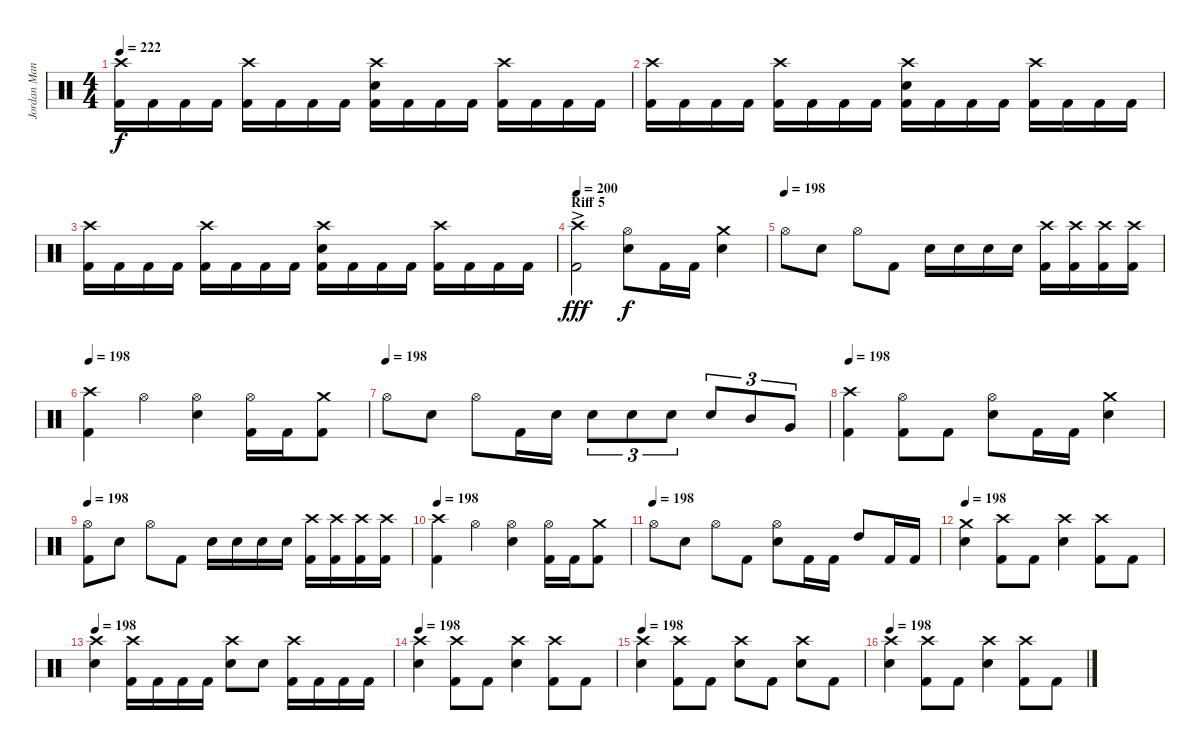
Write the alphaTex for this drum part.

\track ("Jordan Mancino (Drums)" "Jordan Man") {instrument percussion}
\staff {score}
\articulation defaults
\ts (4 4)
\tempo 222
\clef neutral
\ks c
("Crash high (hit)" "Kick (hit) 2").16{dy f} "Kick (hit) 2".16 "Kick (hit) 2".16 "Kick (hit) 2".16 ("Crash high (hit)" "Kick (hit) 2").16 "Kick (hit) 2".16 "Kick (hit) 2".16 "Kick (hit) 2".16 ("Snare (hit) 2" "Crash high (hit)" "Kick (hit) 2").16 "Kick (hit) 2".16 "Kick (hit) 2".16 "Kick (hit) 2".16 ("Crash high (hit)" "Kick (hit) 2").16 "Kick (hit) 2".16 "Kick (hit) 2".16 "Kick (hit) 2".16 |
("Crash high (hit)" "Kick (hit) 2").16 "Kick (hit) 2".16 "Kick (hit) 2".16 "Kick (hit) 2".16 ("Crash high (hit)" "Kick (hit) 2").16 "Kick (hit) 2".16 "Kick (hit) 2".16 "Kick (hit) 2".16 ("Snare (hit) 2" "Crash high (hit)" "Kick (hit) 2").16 "Kick (hit) 2".16 "Kick (hit) 2".16 "Kick (hit) 2".16 ("Crash high (hit)" "Kick (hit) 2").16 "Kick (hit) 2".16 "Kick (hit) 2".16 "Kick (hit) 2".16 |
("Crash high (hit)" "Kick (hit) 2").16 "Kick (hit) 2".16 "Kick (hit) 2".16 "Kick (hit) 2".16 ("Crash high (hit)" "Kick (hit) 2").16 "Kick (hit) 2".16 "Kick (hit) 2".16 "Kick (hit) 2".16 ("Snare (hit) 2" "Crash high (hit)" "Kick (hit) 2").16 "Kick (hit) 2".16 "Kick (hit) 2".16 "Kick (hit) 2".16 ("Crash high (hit)" "Kick (hit) 2").16 "Kick (hit) 2".16 "Kick (hit) 2".16 "Kick (hit) 2".16 |
\section ("" "Riff 5")
\tempo 200
("Crash high (hit)"{ac} "Kick (hit) 2").2{dy fff} ("Hi-Hat (open)" "Snare (hit) 2").8{dy f} "Kick (hit) 2".16 "Kick (hit) 2".16 ("Crash medium (hit)" "Snare (hit) 2").4 |
\tempo (198)
"Hi-Hat (open)".8 "Snare (hit) 2".8 "Hi-Hat (open)".8 "Kick (hit) 2".8 "Snare (hit) 2".16 "Snare (hit) 2".16 "Snare (hit) 2".16 "Snare (hit) 2".16 ("Crash high (hit)" "Kick (hit) 2").16 ("Crash high (hit)" "Kick (hit) 2").16 ("Crash high (hit)" "Kick (hit) 2").16 ("Crash high (hit)" "Kick (hit) 2").16 |
\tempo 198
("Crash high (hit)" "Kick (hit) 2").4 "Hi-Hat (open)".4 ("Hi-Hat (open)" "Snare (hit) 2").4 ("Hi-Hat (open)" "Kick (hit) 2").16 "Kick (hit) 2".16 ("Crash medium (hit)" "Kick (hit) 2").8 |
\tempo (198)
"Hi-Hat (open)".8 "Snare (hit) 2".8 "Hi-Hat (open)".8 "Kick (hit) 2".16 "Snare (hit) 2".16 "Snare (hit) 2".8{tu (3 2)} "Snare (hit) 2".8{tu (3 2)} "Snare (hit) 2".8{tu (3 2)} "Snare (hit) 2".8{tu (3 2)} "Mid Tom (hit)".8{tu (3 2)} "Very Low Tom (hit)".8{tu (3 2)} |
\tempo 198
("Crash high (hit)" "Kick (hit) 2").4 ("Hi-Hat (open)" "Kick (hit) 2").8 "Kick (hit) 2".8 ("Hi-Hat (open)" "Snare (hit) 2").8 "Kick (hit) 2".16 "Kick (hit) 2".16 ("Crash medium (hit)" "Snare (hit) 2").4 |
\tempo 198
("Hi-Hat (open)" "Kick (hit) 2").8 "Snare (hit) 2".8 "Hi-Hat (open)".8 "Kick (hit) 2".8 "Snare (hit) 2".16 "Snare (hit) 2".16 "Snare (hit) 2".16 "Snare (hit) 2".16 ("Crash high (hit)" "Kick (hit) 2").16 ("Crash high (hit)" "Kick (hit) 2").16 ("Crash high (hit)" "Kick (hit) 2").16 ("Crash high (hit)" "Kick (hit) 2").16 |
\tempo 198
("Crash high (hit)" "Kick (hit) 2").4 "Hi-Hat (open)".4 ("Hi-Hat (open)" "Snare (hit) 2").4 ("Hi-Hat (open)" "Kick (hit) 2").16 "Kick (hit) 2".16 ("Crash medium (hit)" "Kick (hit) 2").8 |
\tempo (198)
"Hi-Hat (open)".8 "Snare (hit) 2".8 "Hi-Hat (open)".8 "Kick (hit) 2".8 ("Hi-Hat (open)" "Snare (hit) 2").8 "Kick (hit) 2".16 "Kick (hit) 2".16 "High Tom (hit)".8 "Kick (hit) 2".16 "Kick (hit) 2".16 |
\tempo 198
("Crash medium (hit)" "Snare (hit) 2").4 ("Crash high (hit)" "Kick (hit) 2").8 "Kick (hit) 2".8 ("Crash high (hit)" "Snare (hit) 2").4 ("Crash high (hit)" "Kick (hit) 2").8 "Kick (hit) 2".8 |
\tempo 198
("Crash high (hit)" "Snare (hit) 2").4 ("Crash high (hit)" "Kick (hit) 2").16 "Kick (hit) 2".16 "Kick (hit) 2".16 "Kick (hit) 2".16 ("Crash high (hit)" "Snare (hit) 2").8 "Snare (hit) 2".8 ("Crash high (hit)" "Kick (hit) 2").16 "Kick (hit) 2".16 "Kick (hit) 2".16 "Kick (hit) 2".16 |
\tempo 198
("Crash high (hit)" "Snare (hit) 2").4 ("Crash high (hit)" "Kick (hit) 2").8 "Kick (hit) 2".8 ("Crash high (hit)" "Snare (hit) 2").4 ("Crash high (hit)" "Kick (hit) 2").8 "Kick (hit) 2".8 |
\tempo 198
("Crash high (hit)" "Snare (hit) 2").4 ("Crash high (hit)" "Kick (hit) 2").8 "Kick (hit) 2".8 ("Crash high (hit)" "Snare (hit) 2").8 "Kick (hit) 2".8 ("Crash high (hit)" "Snare (hit) 2").8 "Kick (hit) 2".8 |
\tempo 198
("Crash high (hit)" "Snare (hit) 2").4 ("Crash high (hit)" "Kick (hit) 2").8 "Kick (hit) 2".8 ("Crash high (hit)" "Snare (hit) 2").4 ("Crash high (hit)" "Kick (hit) 2").8 "Kick (hit) 2".8
